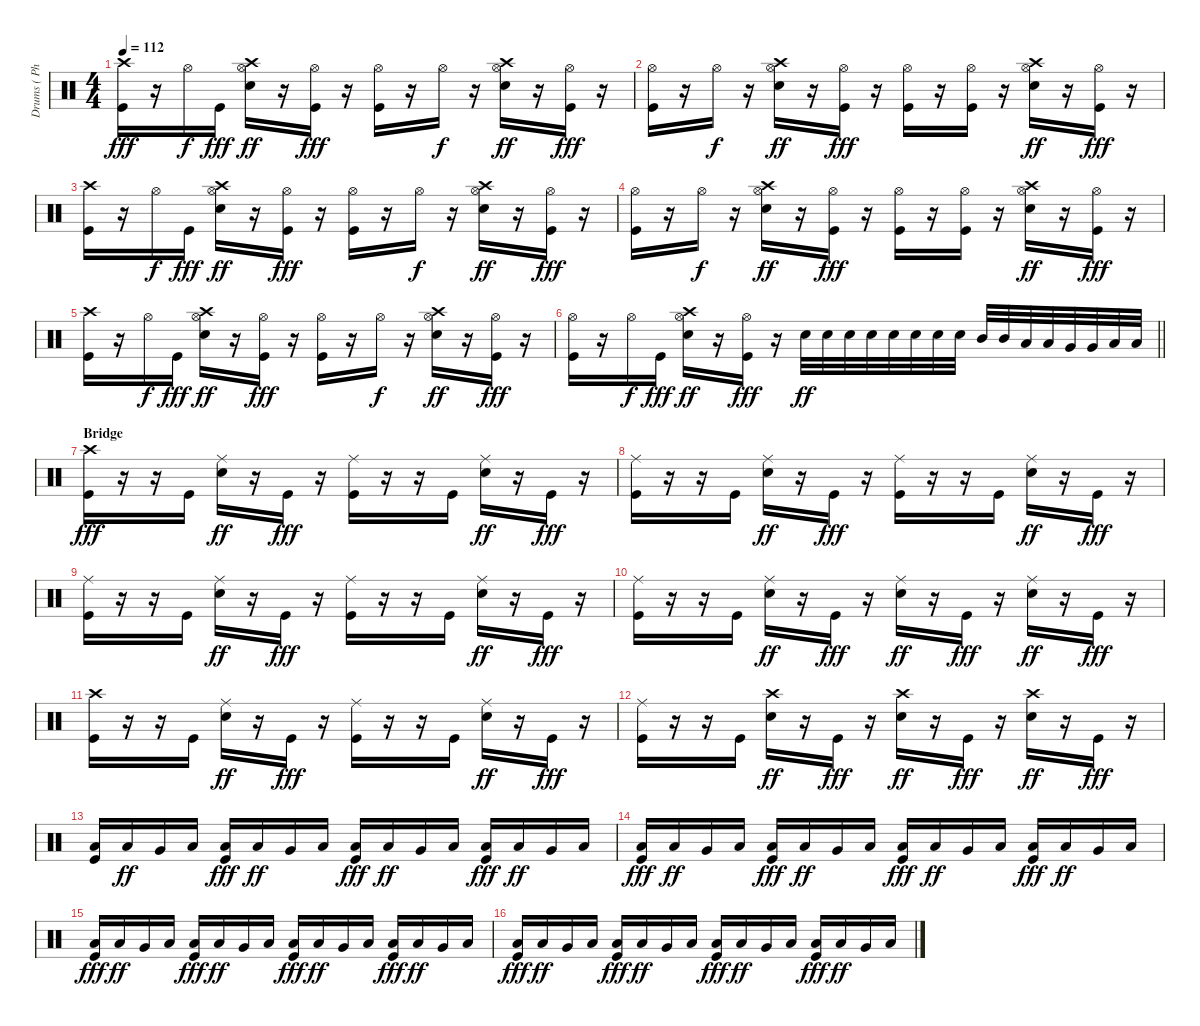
\track ("Drums ( Phillip Selway )" "Drums ( Ph") {instrument percussion}
\staff {score}
\articulation defaults
\ts (4 4)
\tempo 112
\clef neutral
\ks c
("Crash high (hit)" "Kick (hit)").16{dy fff} r.16 "Hi-Hat (open)".16{dy f} "Kick (hit)".16{dy fff} ("Crash high (hit)" "Hi-Hat (open)" "Electric Snare (hit)").16{dy ff} r.16 ("Hi-Hat (open)" "Kick (hit)").16{dy fff} r.16 ("Hi-Hat (open)" "Kick (hit)").16 r.16 "Hi-Hat (open)".16{dy f} r.16 ("Crash high (hit)" "Hi-Hat (open)" "Electric Snare (hit)").16{dy ff} r.16 ("Hi-Hat (open)" "Kick (hit)").16{dy fff} r.16 |
("Hi-Hat (open)" "Kick (hit)").16 r.16 "Hi-Hat (open)".16{dy f} r.16 ("Crash high (hit)" "Hi-Hat (open)" "Electric Snare (hit)").16{dy ff} r.16 ("Hi-Hat (open)" "Kick (hit)").16{dy fff} r.16 ("Hi-Hat (open)" "Kick (hit)").16 r.16 ("Hi-Hat (open)" "Kick (hit)").16 r.16 ("Crash high (hit)" "Hi-Hat (open)" "Electric Snare (hit)").16{dy ff} r.16 ("Hi-Hat (open)" "Kick (hit)").16{dy fff} r.16 |
("Crash high (hit)" "Kick (hit)").16 r.16 "Hi-Hat (open)".16{dy f} "Kick (hit)".16{dy fff} ("Crash high (hit)" "Hi-Hat (open)" "Electric Snare (hit)").16{dy ff} r.16 ("Hi-Hat (open)" "Kick (hit)").16{dy fff} r.16 ("Hi-Hat (open)" "Kick (hit)").16 r.16 "Hi-Hat (open)".16{dy f} r.16 ("Crash high (hit)" "Hi-Hat (open)" "Electric Snare (hit)").16{dy ff} r.16 ("Hi-Hat (open)" "Kick (hit)").16{dy fff} r.16 |
("Hi-Hat (open)" "Kick (hit)").16 r.16 "Hi-Hat (open)".16{dy f} r.16 ("Crash high (hit)" "Hi-Hat (open)" "Electric Snare (hit)").16{dy ff} r.16 ("Hi-Hat (open)" "Kick (hit)").16{dy fff} r.16 ("Hi-Hat (open)" "Kick (hit)").16 r.16 ("Hi-Hat (open)" "Kick (hit)").16 r.16 ("Crash high (hit)" "Hi-Hat (open)" "Electric Snare (hit)").16{dy ff} r.16 ("Hi-Hat (open)" "Kick (hit)").16{dy fff} r.16 |
("Crash high (hit)" "Kick (hit)").16 r.16 "Hi-Hat (open)".16{dy f} "Kick (hit)".16{dy fff} ("Crash high (hit)" "Hi-Hat (open)" "Electric Snare (hit)").16{dy ff} r.16 ("Hi-Hat (open)" "Kick (hit)").16{dy fff} r.16 ("Hi-Hat (open)" "Kick (hit)").16 r.16 "Hi-Hat (open)".16{dy f} r.16 ("Crash high (hit)" "Hi-Hat (open)" "Electric Snare (hit)").16{dy ff} r.16 ("Hi-Hat (open)" "Kick (hit)").16{dy fff} r.16 |
\barLineRight lightlight
("Hi-Hat (open)" "Kick (hit)").16 r.16 "Hi-Hat (open)".16{dy f} "Kick (hit)".16{dy fff} ("Crash high (hit)" "Hi-Hat (open)" "Electric Snare (hit)").16{dy ff} r.16 ("Hi-Hat (open)" "Kick (hit)").16{dy fff} r.16 "Electric Snare (hit)".32{dy ff} "Electric Snare (hit)".32 "Electric Snare (hit)".32 "Electric Snare (hit)".32 "Electric Snare (hit)".32 "Electric Snare (hit)".32 "Electric Snare (hit)".32 "Electric Snare (hit)".32 "Mid Tom (hit)".32 "Mid Tom (hit)".32 "Low Tom (hit)".32 "Low Tom (hit)".32 "Very Low Tom (hit)".32 "Very Low Tom (hit)".32 "Low Floor Tom (hit)".32 "Low Floor Tom (hit)".32 |
\section ("" "Bridge")
("Crash high (hit)" "Kick (hit)").16{dy fff} r.16 r.16 "Kick (hit)".16 ("Ride (middle)" "Electric Snare (hit)").16{dy ff} r.16 "Kick (hit)".16{dy fff} r.16 ("Ride (middle)" "Kick (hit)").16 r.16 r.16 "Kick (hit)".16 ("Ride (middle)" "Electric Snare (hit)").16{dy ff} r.16 "Kick (hit)".16{dy fff} r.16 |
("Ride (middle)" "Kick (hit)").16 r.16 r.16 "Kick (hit)".16 ("Ride (middle)" "Electric Snare (hit)").16{dy ff} r.16 "Kick (hit)".16{dy fff} r.16 ("Ride (middle)" "Kick (hit)").16 r.16 r.16 "Kick (hit)".16 ("Ride (middle)" "Electric Snare (hit)").16{dy ff} r.16 "Kick (hit)".16{dy fff} r.16 |
("Ride (middle)" "Kick (hit)").16 r.16 r.16 "Kick (hit)".16 ("Ride (middle)" "Electric Snare (hit)").16{dy ff} r.16 "Kick (hit)".16{dy fff} r.16 ("Ride (middle)" "Kick (hit)").16 r.16 r.16 "Kick (hit)".16 ("Ride (middle)" "Electric Snare (hit)").16{dy ff} r.16 "Kick (hit)".16{dy fff} r.16 |
("Ride (middle)" "Kick (hit)").16 r.16 r.16 "Kick (hit)".16 ("Ride (middle)" "Electric Snare (hit)").16{dy ff} r.16 "Kick (hit)".16{dy fff} r.16 ("Ride (middle)" "Electric Snare (hit)").16{dy ff} r.16 "Kick (hit)".16{dy fff} r.16 ("Ride (middle)" "Electric Snare (hit)").16{dy ff} r.16 "Kick (hit)".16{dy fff} r.16 |
("Crash high (hit)" "Kick (hit)").16 r.16 r.16 "Kick (hit)".16 ("Ride (middle)" "Electric Snare (hit)").16{dy ff} r.16 "Kick (hit)".16{dy fff} r.16 ("Ride (middle)" "Kick (hit)").16 r.16 r.16 "Kick (hit)".16 ("Ride (middle)" "Electric Snare (hit)").16{dy ff} r.16 "Kick (hit)".16{dy fff} r.16 |
("Ride (middle)" "Kick (hit)").16 r.16 r.16 "Kick (hit)".16 ("Crash high (hit)" "Electric Snare (hit)").16{dy ff} r.16 "Kick (hit)".16{dy fff} r.16 ("Crash high (hit)" "Electric Snare (hit)").16{dy ff} r.16 "Kick (hit)".16{dy fff} r.16 ("Crash high (hit)" "Electric Snare (hit)").16{dy ff} r.16 "Kick (hit)".16{dy fff} r.16 |
("Low Tom (hit)" "Kick (hit)").16 "Low Floor Tom (hit)".16{dy ff} "Very Low Tom (hit)".16 "Low Floor Tom (hit)".16 ("Low Tom (hit)" "Kick (hit)").16{dy fff} "Low Floor Tom (hit)".16{dy ff} "Very Low Tom (hit)".16 "Low Floor Tom (hit)".16 ("Low Tom (hit)" "Kick (hit)").16{dy fff} "Low Floor Tom (hit)".16{dy ff} "Very Low Tom (hit)".16 "Low Floor Tom (hit)".16 ("Low Tom (hit)" "Kick (hit)").16{dy fff} "Low Floor Tom (hit)".16{dy ff} "Very Low Tom (hit)".16 "Low Floor Tom (hit)".16 |
("Low Tom (hit)" "Kick (hit)").16{dy fff} "Low Floor Tom (hit)".16{dy ff} "Very Low Tom (hit)".16 "Low Floor Tom (hit)".16 ("Low Tom (hit)" "Kick (hit)").16{dy fff} "Low Floor Tom (hit)".16{dy ff} "Very Low Tom (hit)".16 "Low Floor Tom (hit)".16 ("Low Tom (hit)" "Kick (hit)").16{dy fff} "Low Floor Tom (hit)".16{dy ff} "Very Low Tom (hit)".16 "Low Floor Tom (hit)".16 ("Low Tom (hit)" "Kick (hit)").16{dy fff} "Low Floor Tom (hit)".16{dy ff} "Very Low Tom (hit)".16 "Low Floor Tom (hit)".16 |
("Low Tom (hit)" "Kick (hit)").16{dy fff} "Low Floor Tom (hit)".16{dy ff} "Very Low Tom (hit)".16 "Low Floor Tom (hit)".16 ("Low Tom (hit)" "Kick (hit)").16{dy fff} "Low Floor Tom (hit)".16{dy ff} "Very Low Tom (hit)".16 "Low Floor Tom (hit)".16 ("Low Tom (hit)" "Kick (hit)").16{dy fff} "Low Floor Tom (hit)".16{dy ff} "Very Low Tom (hit)".16 "Low Floor Tom (hit)".16 ("Low Tom (hit)" "Kick (hit)").16{dy fff} "Low Floor Tom (hit)".16{dy ff} "Very Low Tom (hit)".16 "Low Floor Tom (hit)".16 |
("Low Tom (hit)" "Kick (hit)").16{dy fff} "Low Floor Tom (hit)".16{dy ff} "Very Low Tom (hit)".16 "Low Floor Tom (hit)".16 ("Low Tom (hit)" "Kick (hit)").16{dy fff} "Low Floor Tom (hit)".16{dy ff} "Very Low Tom (hit)".16 "Low Floor Tom (hit)".16 ("Low Tom (hit)" "Kick (hit)").16{dy fff} "Low Floor Tom (hit)".16{dy ff} "Very Low Tom (hit)".16 "Low Floor Tom (hit)".16 ("Low Tom (hit)" "Kick (hit)").16{dy fff} "Low Floor Tom (hit)".16{dy ff} "Very Low Tom (hit)".16 "Low Floor Tom (hit)".16
